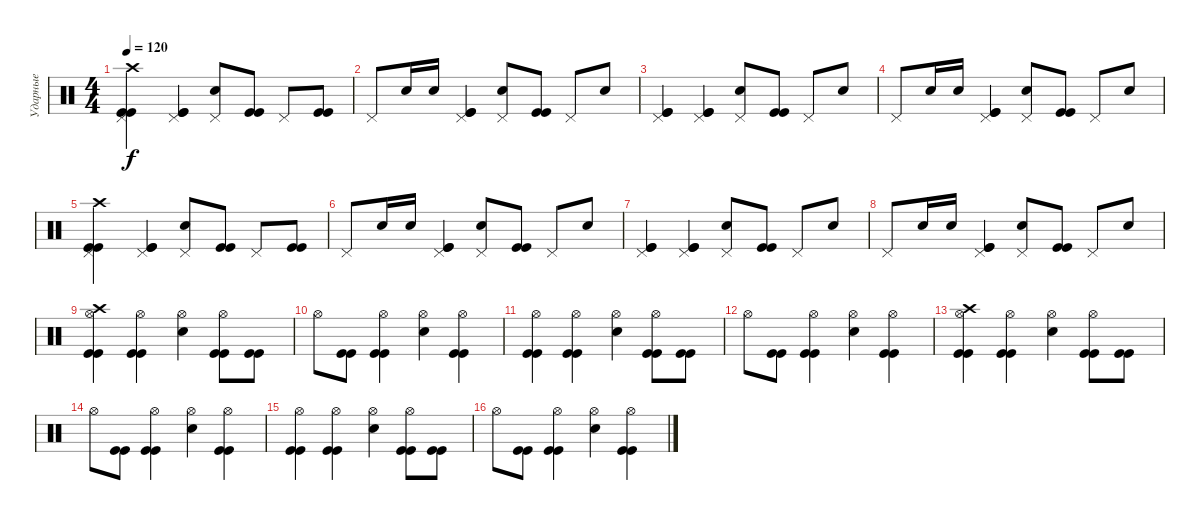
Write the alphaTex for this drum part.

\track ("Ударные" "Ударные") {instrument percussion}
\staff {score}
\articulation defaults
\ts (4 4)
\tempo 120
\clef neutral
\ks c
("Crash high (hit)" "Pedal Hi-Hat (hit)" "Kick (hit)" "Kick (hit)").4{dy f} ("Pedal Hi-Hat (hit)" "Kick (hit)" "Kick (hit)").4 ("Snare (hit) 2" "Pedal Hi-Hat (hit)").8 ("Kick (hit)" "Kick (hit)").8 "Pedal Hi-Hat (hit)".8 ("Kick (hit)" "Kick (hit)").8 |
"Pedal Hi-Hat (hit)".8 "Snare (hit) 2".16 "Snare (hit) 2".16 ("Pedal Hi-Hat (hit)" "Kick (hit)" "Kick (hit)").4 ("Snare (hit) 2" "Pedal Hi-Hat (hit)").8 ("Kick (hit)" "Kick (hit)").8 "Pedal Hi-Hat (hit)".8 "Snare (hit) 2".8 |
("Pedal Hi-Hat (hit)" "Kick (hit)" "Kick (hit)").4 ("Pedal Hi-Hat (hit)" "Kick (hit)" "Kick (hit)").4 ("Snare (hit) 2" "Pedal Hi-Hat (hit)").8 ("Kick (hit)" "Kick (hit)").8 "Pedal Hi-Hat (hit)".8 "Snare (hit) 2".8 |
"Pedal Hi-Hat (hit)".8 "Snare (hit) 2".16 "Snare (hit) 2".16 ("Pedal Hi-Hat (hit)" "Kick (hit)" "Kick (hit)").4 ("Snare (hit) 2" "Pedal Hi-Hat (hit)").8 ("Kick (hit)" "Kick (hit)").8 "Pedal Hi-Hat (hit)".8 "Snare (hit) 2".8 |
("Crash high (hit)" "Pedal Hi-Hat (hit)" "Kick (hit)" "Kick (hit)").4 ("Pedal Hi-Hat (hit)" "Kick (hit)" "Kick (hit)").4 ("Snare (hit) 2" "Pedal Hi-Hat (hit)").8 ("Kick (hit)" "Kick (hit)").8 "Pedal Hi-Hat (hit)".8 ("Kick (hit)" "Kick (hit)").8 |
"Pedal Hi-Hat (hit)".8 "Snare (hit) 2".16 "Snare (hit) 2".16 ("Pedal Hi-Hat (hit)" "Kick (hit)" "Kick (hit)").4 ("Snare (hit) 2" "Pedal Hi-Hat (hit)").8 ("Kick (hit)" "Kick (hit)").8 "Pedal Hi-Hat (hit)".8 "Snare (hit) 2".8 |
("Pedal Hi-Hat (hit)" "Kick (hit)" "Kick (hit)").4 ("Pedal Hi-Hat (hit)" "Kick (hit)" "Kick (hit)").4 ("Snare (hit) 2" "Pedal Hi-Hat (hit)").8 ("Kick (hit)" "Kick (hit)").8 "Pedal Hi-Hat (hit)".8 "Snare (hit) 2".8 |
"Pedal Hi-Hat (hit)".8 "Snare (hit) 2".16 "Snare (hit) 2".16 ("Pedal Hi-Hat (hit)" "Kick (hit)" "Kick (hit)").4 ("Snare (hit) 2" "Pedal Hi-Hat (hit)").8 ("Kick (hit)" "Kick (hit)").8 "Pedal Hi-Hat (hit)".8 "Snare (hit) 2".8 |
("Crash high (hit)" "Hi-Hat (open)" "Kick (hit)" "Kick (hit)").4 ("Hi-Hat (open)" "Kick (hit)" "Kick (hit)").4 ("Snare (hit) 2" "Hi-Hat (open)").4 ("Hi-Hat (open)" "Kick (hit)" "Kick (hit)").8 ("Kick (hit)" "Kick (hit)").8 |
"Hi-Hat (open)".8 ("Kick (hit)" "Kick (hit)").8 ("Hi-Hat (open)" "Kick (hit)" "Kick (hit)").4 ("Snare (hit) 2" "Hi-Hat (open)").4 ("Hi-Hat (open)" "Kick (hit)" "Kick (hit)").4 |
("Hi-Hat (open)" "Kick (hit)" "Kick (hit)").4 ("Hi-Hat (open)" "Kick (hit)" "Kick (hit)").4 ("Snare (hit) 2" "Hi-Hat (open)").4 ("Hi-Hat (open)" "Kick (hit)" "Kick (hit)").8 ("Kick (hit)" "Kick (hit)").8 |
"Hi-Hat (open)".8 ("Kick (hit)" "Kick (hit)").8 ("Hi-Hat (open)" "Kick (hit)" "Kick (hit)").4 ("Snare (hit) 2" "Hi-Hat (open)").4 ("Hi-Hat (open)" "Kick (hit)" "Kick (hit)").4 |
("Crash high (hit)" "Hi-Hat (open)" "Kick (hit)" "Kick (hit)").4 ("Hi-Hat (open)" "Kick (hit)" "Kick (hit)").4 ("Snare (hit) 2" "Hi-Hat (open)").4 ("Hi-Hat (open)" "Kick (hit)" "Kick (hit)").8 ("Kick (hit)" "Kick (hit)").8 |
"Hi-Hat (open)".8 ("Kick (hit)" "Kick (hit)").8 ("Hi-Hat (open)" "Kick (hit)" "Kick (hit)").4 ("Snare (hit) 2" "Hi-Hat (open)").4 ("Hi-Hat (open)" "Kick (hit)" "Kick (hit)").4 |
("Hi-Hat (open)" "Kick (hit)" "Kick (hit)").4 ("Hi-Hat (open)" "Kick (hit)" "Kick (hit)").4 ("Snare (hit) 2" "Hi-Hat (open)").4 ("Hi-Hat (open)" "Kick (hit)" "Kick (hit)").8 ("Kick (hit)" "Kick (hit)").8 |
"Hi-Hat (open)".8 ("Kick (hit)" "Kick (hit)").8 ("Hi-Hat (open)" "Kick (hit)" "Kick (hit)").4 ("Snare (hit) 2" "Hi-Hat (open)").4 ("Hi-Hat (open)" "Kick (hit)" "Kick (hit)").4
